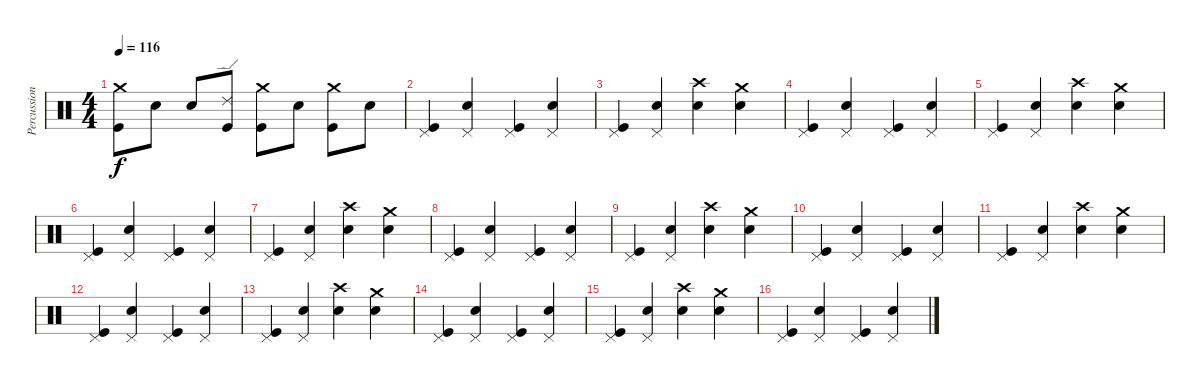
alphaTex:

\track ("Percussions" "Percussion") {instrument percussion}
\staff {score}
\articulation defaults
\ts (4 4)
\tempo 116
\clef neutral
\ks c
("Crash medium (hit)" "Kick (hit)").8{dy f} "Electric Snare (hit)".8 "Electric Snare (hit)".8 ("Ride (edge) 2" "Kick (hit)").8 ("Crash medium (hit)" "Kick (hit)").8 "Electric Snare (hit)".8 ("Crash medium (hit)" "Kick (hit)").8 "Electric Snare (hit)".8 |
("Pedal Hi-Hat (hit)" "Kick (hit)").4 ("Pedal Hi-Hat (hit)" "Electric Snare (hit)").4 ("Pedal Hi-Hat (hit)" "Kick (hit)").4 ("Pedal Hi-Hat (hit)" "Electric Snare (hit)").4 |
("Pedal Hi-Hat (hit)" "Kick (hit)").4 ("Pedal Hi-Hat (hit)" "Electric Snare (hit)").4 ("Electric Snare (hit)" "Crash high (hit)").4 ("Crash medium (hit)" "Electric Snare (hit)").4 |
("Pedal Hi-Hat (hit)" "Kick (hit)").4 ("Pedal Hi-Hat (hit)" "Electric Snare (hit)").4 ("Pedal Hi-Hat (hit)" "Kick (hit)").4 ("Pedal Hi-Hat (hit)" "Electric Snare (hit)").4 |
("Pedal Hi-Hat (hit)" "Kick (hit)").4 ("Pedal Hi-Hat (hit)" "Electric Snare (hit)").4 ("Electric Snare (hit)" "Crash high (hit)").4 ("Crash medium (hit)" "Electric Snare (hit)").4 |
("Pedal Hi-Hat (hit)" "Kick (hit)").4 ("Pedal Hi-Hat (hit)" "Electric Snare (hit)").4 ("Pedal Hi-Hat (hit)" "Kick (hit)").4 ("Pedal Hi-Hat (hit)" "Electric Snare (hit)").4 |
("Pedal Hi-Hat (hit)" "Kick (hit)").4 ("Pedal Hi-Hat (hit)" "Electric Snare (hit)").4 ("Electric Snare (hit)" "Crash high (hit)").4 ("Crash medium (hit)" "Electric Snare (hit)").4 |
("Pedal Hi-Hat (hit)" "Kick (hit)").4 ("Pedal Hi-Hat (hit)" "Electric Snare (hit)").4 ("Pedal Hi-Hat (hit)" "Kick (hit)").4 ("Pedal Hi-Hat (hit)" "Electric Snare (hit)").4 |
("Pedal Hi-Hat (hit)" "Kick (hit)").4 ("Pedal Hi-Hat (hit)" "Electric Snare (hit)").4 ("Electric Snare (hit)" "Crash high (hit)").4 ("Crash medium (hit)" "Electric Snare (hit)").4 |
("Pedal Hi-Hat (hit)" "Kick (hit)").4 ("Pedal Hi-Hat (hit)" "Electric Snare (hit)").4 ("Pedal Hi-Hat (hit)" "Kick (hit)").4 ("Pedal Hi-Hat (hit)" "Electric Snare (hit)").4 |
("Pedal Hi-Hat (hit)" "Kick (hit)").4 ("Pedal Hi-Hat (hit)" "Electric Snare (hit)").4 ("Electric Snare (hit)" "Crash high (hit)").4 ("Crash medium (hit)" "Electric Snare (hit)").4 |
("Pedal Hi-Hat (hit)" "Kick (hit)").4 ("Pedal Hi-Hat (hit)" "Electric Snare (hit)").4 ("Pedal Hi-Hat (hit)" "Kick (hit)").4 ("Pedal Hi-Hat (hit)" "Electric Snare (hit)").4 |
("Pedal Hi-Hat (hit)" "Kick (hit)").4 ("Pedal Hi-Hat (hit)" "Electric Snare (hit)").4 ("Electric Snare (hit)" "Crash high (hit)").4 ("Crash medium (hit)" "Electric Snare (hit)").4 |
("Pedal Hi-Hat (hit)" "Kick (hit)").4 ("Pedal Hi-Hat (hit)" "Electric Snare (hit)").4 ("Pedal Hi-Hat (hit)" "Kick (hit)").4 ("Pedal Hi-Hat (hit)" "Electric Snare (hit)").4 |
("Pedal Hi-Hat (hit)" "Kick (hit)").4 ("Pedal Hi-Hat (hit)" "Electric Snare (hit)").4 ("Electric Snare (hit)" "Crash high (hit)").4 ("Crash medium (hit)" "Electric Snare (hit)").4 |
("Pedal Hi-Hat (hit)" "Kick (hit)").4 ("Pedal Hi-Hat (hit)" "Electric Snare (hit)").4 ("Pedal Hi-Hat (hit)" "Kick (hit)").4 ("Pedal Hi-Hat (hit)" "Electric Snare (hit)").4
